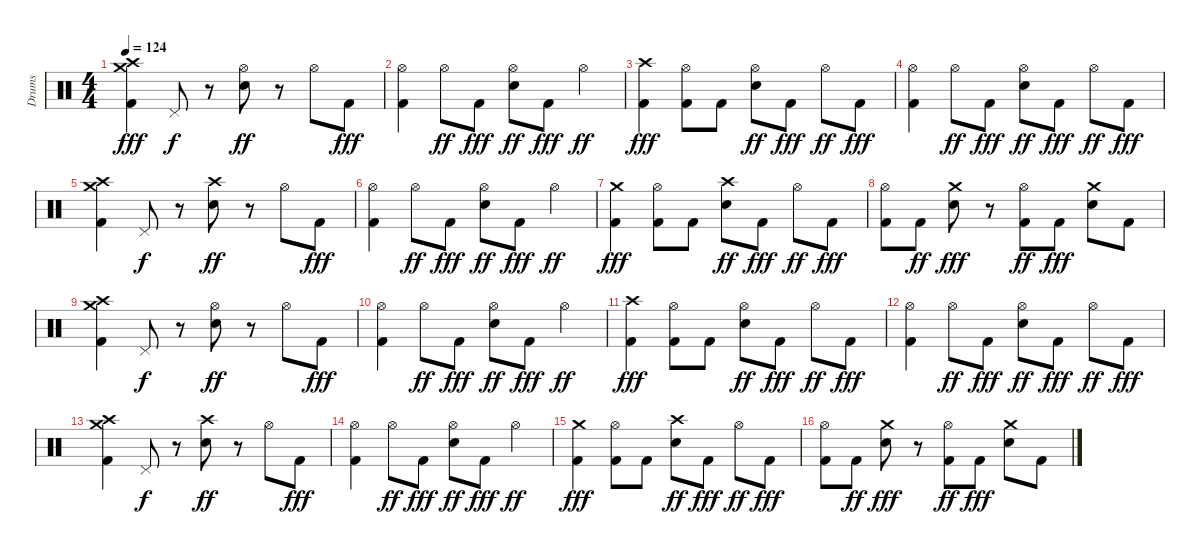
\track ("Drums" "Drums") {instrument percussion}
\staff {score}
\articulation defaults
\ts (4 4)
\tempo 124
\clef neutral
\ks c
("Crash medium (hit)" "Crash high (hit)" "Kick (hit) 2").4{dy fff} "Pedal Hi-Hat (hit)".8{dy f} r.8 ("Hi-Hat (open)" "Snare (hit) 2").8{dy ff} r.8 "Hi-Hat (open)".8 "Kick (hit) 2".8{dy fff} |
("Hi-Hat (open)" "Kick (hit) 2").4 "Hi-Hat (open)".8{dy ff} "Kick (hit) 2".8{dy fff} ("Hi-Hat (open)" "Snare (hit) 2").8{dy ff} "Kick (hit) 2".8{dy fff} "Hi-Hat (open)".4{dy ff} |
("Crash high (hit)" "Kick (hit) 2").4{dy fff} ("Hi-Hat (open)" "Kick (hit) 2").8 "Kick (hit) 2".8 ("Hi-Hat (open)" "Snare (hit) 2").8{dy ff} "Kick (hit) 2".8{dy fff} "Hi-Hat (open)".8{dy ff} "Kick (hit) 2".8{dy fff} |
("Hi-Hat (open)" "Kick (hit) 2").4 "Hi-Hat (open)".8{dy ff} "Kick (hit) 2".8{dy fff} ("Hi-Hat (open)" "Snare (hit) 2").8{dy ff} "Kick (hit) 2".8{dy fff} "Hi-Hat (open)".8{dy ff} "Kick (hit) 2".8{dy fff} |
("Crash medium (hit)" "Crash high (hit)" "Kick (hit) 2").4 "Pedal Hi-Hat (hit)".8{dy f} r.8 ("Crash high (hit)" "Snare (hit) 2").8{dy ff} r.8 "Hi-Hat (open)".8 "Kick (hit) 2".8{dy fff} |
("Hi-Hat (open)" "Kick (hit) 2").4 "Hi-Hat (open)".8{dy ff} "Kick (hit) 2".8{dy fff} ("Hi-Hat (open)" "Snare (hit) 2").8{dy ff} "Kick (hit) 2".8{dy fff} "Hi-Hat (open)".4{dy ff} |
("Crash medium (hit)" "Kick (hit) 2").4{dy fff} ("Hi-Hat (open)" "Kick (hit) 2").8 "Kick (hit) 2".8 ("Crash high (hit)" "Snare (hit) 2").8{dy ff} "Kick (hit) 2".8{dy fff} "Hi-Hat (open)".8{dy ff} "Kick (hit) 2".8{dy fff} |
("Hi-Hat (open)" "Kick (hit) 2").8 "Kick (hit) 2".8{dy ff} ("Crash medium (hit)" "Snare (hit) 2").8{dy fff} r.8 ("Hi-Hat (open)" "Kick (hit) 2").8{dy ff} "Kick (hit) 2".8{dy fff} ("Crash medium (hit)" "Snare (hit) 2").8 "Kick (hit) 2".8 |
("Crash medium (hit)" "Crash high (hit)" "Kick (hit) 2").4 "Pedal Hi-Hat (hit)".8{dy f} r.8 ("Hi-Hat (open)" "Snare (hit) 2").8{dy ff} r.8 "Hi-Hat (open)".8 "Kick (hit) 2".8{dy fff} |
("Hi-Hat (open)" "Kick (hit) 2").4 "Hi-Hat (open)".8{dy ff} "Kick (hit) 2".8{dy fff} ("Hi-Hat (open)" "Snare (hit) 2").8{dy ff} "Kick (hit) 2".8{dy fff} "Hi-Hat (open)".4{dy ff} |
("Crash high (hit)" "Kick (hit) 2").4{dy fff} ("Hi-Hat (open)" "Kick (hit) 2").8 "Kick (hit) 2".8 ("Hi-Hat (open)" "Snare (hit) 2").8{dy ff} "Kick (hit) 2".8{dy fff} "Hi-Hat (open)".8{dy ff} "Kick (hit) 2".8{dy fff} |
("Hi-Hat (open)" "Kick (hit) 2").4 "Hi-Hat (open)".8{dy ff} "Kick (hit) 2".8{dy fff} ("Hi-Hat (open)" "Snare (hit) 2").8{dy ff} "Kick (hit) 2".8{dy fff} "Hi-Hat (open)".8{dy ff} "Kick (hit) 2".8{dy fff} |
("Crash medium (hit)" "Crash high (hit)" "Kick (hit) 2").4 "Pedal Hi-Hat (hit)".8{dy f} r.8 ("Crash high (hit)" "Snare (hit) 2").8{dy ff} r.8 "Hi-Hat (open)".8 "Kick (hit) 2".8{dy fff} |
("Hi-Hat (open)" "Kick (hit) 2").4 "Hi-Hat (open)".8{dy ff} "Kick (hit) 2".8{dy fff} ("Hi-Hat (open)" "Snare (hit) 2").8{dy ff} "Kick (hit) 2".8{dy fff} "Hi-Hat (open)".4{dy ff} |
("Crash medium (hit)" "Kick (hit) 2").4{dy fff} ("Hi-Hat (open)" "Kick (hit) 2").8 "Kick (hit) 2".8 ("Crash high (hit)" "Snare (hit) 2").8{dy ff} "Kick (hit) 2".8{dy fff} "Hi-Hat (open)".8{dy ff} "Kick (hit) 2".8{dy fff} |
("Hi-Hat (open)" "Kick (hit) 2").8 "Kick (hit) 2".8{dy ff} ("Crash medium (hit)" "Snare (hit) 2").8{dy fff} r.8 ("Hi-Hat (open)" "Kick (hit) 2").8{dy ff} "Kick (hit) 2".8{dy fff} ("Crash medium (hit)" "Snare (hit) 2").8 "Kick (hit) 2".8
